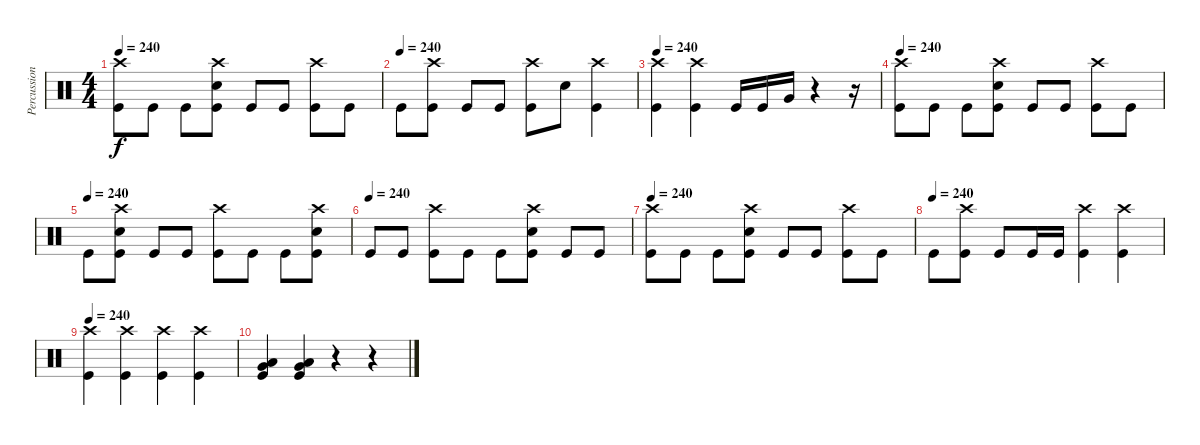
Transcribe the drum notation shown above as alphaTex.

\track ("Percussion" "Percussion") {instrument percussion}
\staff {score}
\articulation defaults
\ts (4 4)
\tempo 240
\clef neutral
\ks c
("Crash high (hit)" "Kick (hit)").8{dy f} "Kick (hit)".8 "Kick (hit)".8 ("Crash high (hit)" "Electric Snare (hit)" "Kick (hit)").8 "Kick (hit)".8 "Kick (hit)".8 ("Crash high (hit)" "Kick (hit)").8 "Kick (hit)".8 |
\tempo (240)
"Kick (hit)".8 ("Crash high (hit)" "Kick (hit)").8 "Kick (hit)".8 "Kick (hit)".8 ("Crash high (hit)" "Kick (hit)").8 "Electric Snare (hit)".8 ("Crash high (hit)" "Kick (hit)").4 |
\tempo 240
("Crash high (hit)" "Kick (hit)").4 ("Crash high (hit)" "Kick (hit)").4 "Kick (hit)".16 "Kick (hit)".16 "Very Low Tom (hit)".16 r.4 r.16 |
\tempo 240
("Crash high (hit)" "Kick (hit)").8 "Kick (hit)".8 "Kick (hit)".8 ("Crash high (hit)" "Electric Snare (hit)" "Kick (hit)").8 "Kick (hit)".8 "Kick (hit)".8 ("Crash high (hit)" "Kick (hit)").8 "Kick (hit)".8 |
\tempo (240)
"Kick (hit)".8 ("Crash high (hit)" "Electric Snare (hit)" "Kick (hit)").8 "Kick (hit)".8 "Kick (hit)".8 ("Crash high (hit)" "Kick (hit)").8 "Kick (hit)".8 "Kick (hit)".8 ("Crash high (hit)" "Electric Snare (hit)" "Kick (hit)").8 |
\tempo (240)
"Kick (hit)".8 "Kick (hit)".8 ("Crash high (hit)" "Kick (hit)").8 "Kick (hit)".8 "Kick (hit)".8 ("Crash high (hit)" "Electric Snare (hit)" "Kick (hit)").8 "Kick (hit)".8 "Kick (hit)".8 |
\tempo 240
("Crash high (hit)" "Kick (hit)").8 "Kick (hit)".8 "Kick (hit)".8 ("Crash high (hit)" "Electric Snare (hit)" "Kick (hit)").8 "Kick (hit)".8 "Kick (hit)".8 ("Crash high (hit)" "Kick (hit)").8 "Kick (hit)".8 |
\tempo (240)
"Kick (hit)".8 ("Crash high (hit)" "Kick (hit)").8 "Kick (hit)".8 "Kick (hit)".16 "Kick (hit)".16 ("Crash high (hit)" "Kick (hit)").4 ("Crash high (hit)" "Kick (hit)").4 |
\tempo 240
("Crash high (hit)" "Kick (hit)").4 ("Crash high (hit)" "Kick (hit)").4 ("Crash high (hit)" "Kick (hit)").4 ("Crash high (hit)" "Kick (hit)").4 |
("Very Low Tom (hit)" "Low Floor Tom (hit)" "Kick (hit)").4 ("Very Low Tom (hit)" "Low Floor Tom (hit)" "Kick (hit)").4 r.4 r.4
